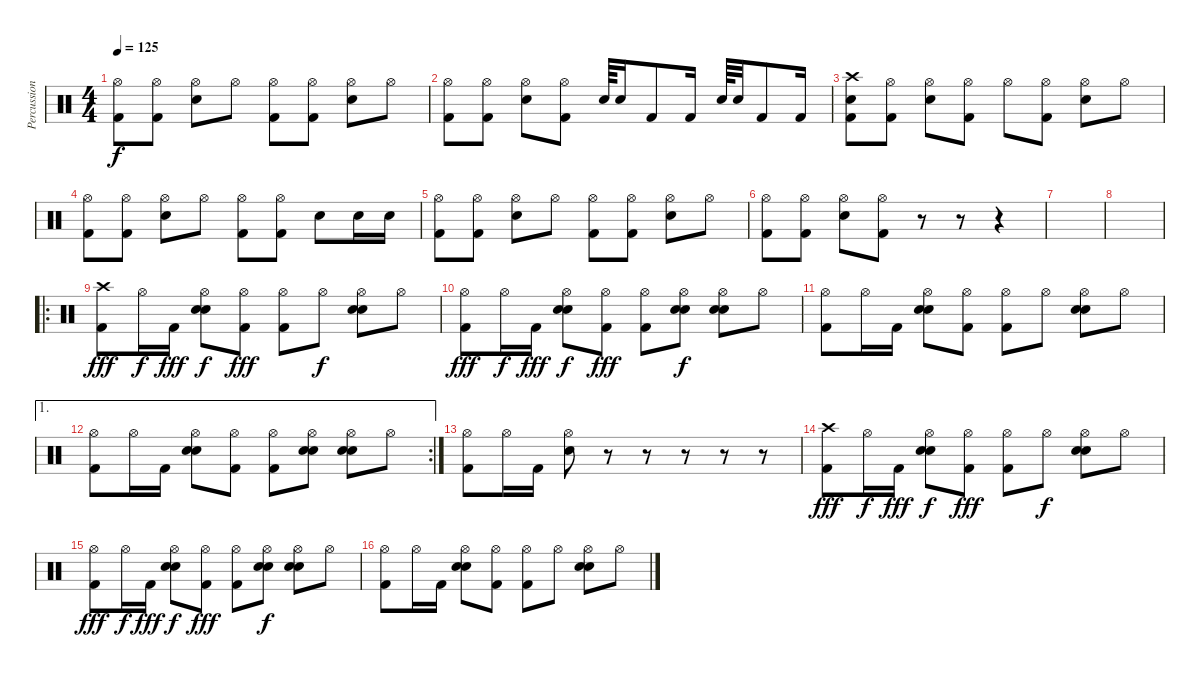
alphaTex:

\track ("Percussion" "Percussion") {instrument percussion}
\staff {score}
\articulation defaults
\ts (4 4)
\tempo 125
\clef neutral
\ks c
("Hi-Hat (open)" "Kick (hit) 2").8{dy f} ("Hi-Hat (open)" "Kick (hit) 2").8 ("Hi-Hat (open)" "Electric Snare (hit)").8 "Hi-Hat (open)".8 ("Hi-Hat (open)" "Kick (hit) 2").8 ("Hi-Hat (open)" "Kick (hit) 2").8 ("Hi-Hat (open)" "Electric Snare (hit)").8 "Hi-Hat (open)".8 |
("Hi-Hat (open)" "Kick (hit) 2").8 ("Hi-Hat (open)" "Kick (hit) 2").8 ("Hi-Hat (open)" "Electric Snare (hit)").8 ("Hi-Hat (open)" "Kick (hit) 2").8 "Electric Snare (hit)".64 "Electric Snare (hit)".16 "Kick (hit) 2".8 "Kick (hit) 2".16 "Electric Snare (hit)".64 "Electric Snare (hit)".32 "Kick (hit) 2".8 "Kick (hit) 2".16 |
("Crash high (hit)" "Electric Snare (hit)" "Kick (hit) 2").8 ("Hi-Hat (open)" "Kick (hit) 2").8 ("Hi-Hat (open)" "Electric Snare (hit)").8 ("Hi-Hat (open)" "Kick (hit) 2").8 "Hi-Hat (open)".8 ("Hi-Hat (open)" "Kick (hit) 2").8 ("Hi-Hat (open)" "Electric Snare (hit)").8 "Hi-Hat (open)".8 |
("Hi-Hat (open)" "Kick (hit) 2").8 ("Hi-Hat (open)" "Kick (hit) 2").8 ("Hi-Hat (open)" "Electric Snare (hit)").8 "Hi-Hat (open)".8 ("Hi-Hat (open)" "Kick (hit) 2").8 ("Hi-Hat (open)" "Kick (hit) 2").8 "Electric Snare (hit)".8 "Electric Snare (hit)".16 "Electric Snare (hit)".16 |
("Hi-Hat (open)" "Kick (hit) 2").8 ("Hi-Hat (open)" "Kick (hit) 2").8 ("Hi-Hat (open)" "Electric Snare (hit)").8 "Hi-Hat (open)".8 ("Hi-Hat (open)" "Kick (hit) 2").8 ("Hi-Hat (open)" "Kick (hit) 2").8 ("Hi-Hat (open)" "Electric Snare (hit)").8 "Hi-Hat (open)".8 |
("Hi-Hat (open)" "Kick (hit) 2").8 ("Hi-Hat (open)" "Kick (hit) 2").8 ("Hi-Hat (open)" "Electric Snare (hit)").8 ("Hi-Hat (open)" "Kick (hit) 2").8 r.8 r.8 r.4 |
|
|
\ro
("Crash high (hit)" "Kick (hit) 2").8{dy fff} "Hi-Hat (open)".16{dy f} "Kick (hit) 2".16{dy fff} ("Hand Clap (hit)" "Hi-Hat (open)" "Electric Snare (hit)").8{dy f} ("Hi-Hat (open)" "Kick (hit) 2").8{dy fff} ("Hi-Hat (open)" "Kick (hit) 2").8 "Hi-Hat (open)".8{dy f} ("Hand Clap (hit)" "Hi-Hat (open)" "Electric Snare (hit)").8 "Hi-Hat (open)".8 |
("Hi-Hat (open)" "Kick (hit) 2").8{dy fff} "Hi-Hat (open)".16{dy f} "Kick (hit) 2".16{dy fff} ("Hand Clap (hit)" "Hi-Hat (open)" "Electric Snare (hit)").8{dy f} ("Hi-Hat (open)" "Kick (hit) 2").8{dy fff} ("Hi-Hat (open)" "Kick (hit) 2").8 ("Hand Clap (hit)" "Hi-Hat (open)" "Electric Snare (hit)").8{dy f} ("Hand Clap (hit)" "Hi-Hat (open)" "Electric Snare (hit)").8 "Hi-Hat (open)".8 |
("Hi-Hat (open)" "Kick (hit) 2").8 "Hi-Hat (open)".16 "Kick (hit) 2".16 ("Hand Clap (hit)" "Hi-Hat (open)" "Electric Snare (hit)").8 ("Hi-Hat (open)" "Kick (hit) 2").8 ("Hi-Hat (open)" "Kick (hit) 2").8 "Hi-Hat (open)".8 ("Hand Clap (hit)" "Hi-Hat (open)" "Electric Snare (hit)").8 "Hi-Hat (open)".8 |
\ae 1
\rc 2
("Hi-Hat (open)" "Kick (hit) 2").8 "Hi-Hat (open)".16 "Kick (hit) 2".16 ("Hand Clap (hit)" "Hi-Hat (open)" "Electric Snare (hit)").8 ("Hi-Hat (open)" "Kick (hit) 2").8 ("Hi-Hat (open)" "Kick (hit) 2").8 ("Hand Clap (hit)" "Hi-Hat (open)" "Electric Snare (hit)").8 ("Hand Clap (hit)" "Hi-Hat (open)" "Electric Snare (hit)").8 "Hi-Hat (open)".8 |
("Hi-Hat (open)" "Kick (hit) 2").8 "Hi-Hat (open)".16 "Kick (hit) 2".16 ("Hi-Hat (open)" "Electric Snare (hit)").8 r.8 r.8 r.8 r.8 r.8 |
("Crash high (hit)" "Kick (hit) 2").8{dy fff} "Hi-Hat (open)".16{dy f} "Kick (hit) 2".16{dy fff} ("Hand Clap (hit)" "Hi-Hat (open)" "Electric Snare (hit)").8{dy f} ("Hi-Hat (open)" "Kick (hit) 2").8{dy fff} ("Hi-Hat (open)" "Kick (hit) 2").8 "Hi-Hat (open)".8{dy f} ("Hand Clap (hit)" "Hi-Hat (open)" "Electric Snare (hit)").8 "Hi-Hat (open)".8 |
("Hi-Hat (open)" "Kick (hit) 2").8{dy fff} "Hi-Hat (open)".16{dy f} "Kick (hit) 2".16{dy fff} ("Hand Clap (hit)" "Hi-Hat (open)" "Electric Snare (hit)").8{dy f} ("Hi-Hat (open)" "Kick (hit) 2").8{dy fff} ("Hi-Hat (open)" "Kick (hit) 2").8 ("Hand Clap (hit)" "Hi-Hat (open)" "Electric Snare (hit)").8{dy f} ("Hand Clap (hit)" "Hi-Hat (open)" "Electric Snare (hit)").8 "Hi-Hat (open)".8 |
("Hi-Hat (open)" "Kick (hit) 2").8 "Hi-Hat (open)".16 "Kick (hit) 2".16 ("Hand Clap (hit)" "Hi-Hat (open)" "Electric Snare (hit)").8 ("Hi-Hat (open)" "Kick (hit) 2").8 ("Hi-Hat (open)" "Kick (hit) 2").8 "Hi-Hat (open)".8 ("Hand Clap (hit)" "Hi-Hat (open)" "Electric Snare (hit)").8 "Hi-Hat (open)".8
